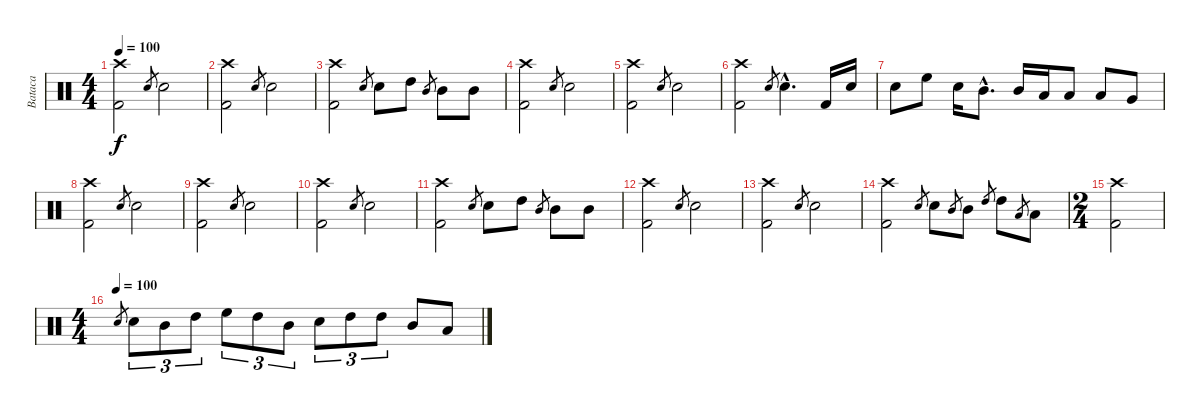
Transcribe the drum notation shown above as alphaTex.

\track ("Bataca" "Bataca") {instrument percussion}
\staff {score}
\articulation defaults
\ts (4 4)
\tempo 100
\clef neutral
\ks c
("Crash high (hit)" "Kick (hit) 2").2{dy f} "Electric Snare (hit)".8{gr} "Electric Snare (hit)".2 |
("Crash high (hit)" "Kick (hit) 2").2 "Electric Snare (hit)".8{gr} "Electric Snare (hit)".2 |
("Crash high (hit)" "Kick (hit) 2").2 "Electric Snare (hit)".8{gr} "Electric Snare (hit)".8 "High Tom (hit)".8 "Mid Tom (hit)".8{gr} "Mid Tom (hit)".8 "Mid Tom (hit)".8 |
("Crash high (hit)" "Kick (hit) 2").2 "Electric Snare (hit)".8{gr} "Electric Snare (hit)".2 |
("Crash high (hit)" "Kick (hit) 2").2 "Electric Snare (hit)".8{gr} "Electric Snare (hit)".2 |
("Crash high (hit)" "Kick (hit) 2").2 "Electric Snare (hit)".8{gr} "Electric Snare (hit)"{hac}.4{d} "Kick (hit) 2".16 "Electric Snare (hit)".16 |
"Electric Snare (hit)".8 "High Floor Tom (hit)".8 "Electric Snare (hit)".16 "Mid Tom (hit)"{hac}.8{d} "Mid Tom (hit)".16 "Low Tom (hit)".16 "Low Tom (hit)".8 "Low Tom (hit)".8 "Very Low Tom (hit)".8 |
("Crash high (hit)" "Kick (hit) 2").2 "Electric Snare (hit)".8{gr} "Electric Snare (hit)".2 |
("Crash high (hit)" "Kick (hit) 2").2 "Electric Snare (hit)".8{gr} "Electric Snare (hit)".2 |
("Crash high (hit)" "Kick (hit) 2").2 "Electric Snare (hit)".8{gr} "Electric Snare (hit)".2 |
("Crash high (hit)" "Kick (hit) 2").2 "Electric Snare (hit)".8{gr} "Electric Snare (hit)".8 "High Tom (hit)".8 "Mid Tom (hit)".8{gr} "Mid Tom (hit)".8 "Mid Tom (hit)".8 |
("Crash high (hit)" "Kick (hit) 2").2 "Electric Snare (hit)".8{gr} "Electric Snare (hit)".2 |
("Crash high (hit)" "Kick (hit) 2").2 "Electric Snare (hit)".8{gr} "Electric Snare (hit)".2 |
("Crash high (hit)" "Kick (hit) 2").2 "Electric Snare (hit)".8{gr} "Electric Snare (hit)".8 "Mid Tom (hit)".8{gr} "Mid Tom (hit)".8 "High Tom (hit)".8{gr} "High Tom (hit)".8 "Low Tom (hit)".8{gr} "Low Tom (hit)".8 |
\ts (2 4)
("Crash high (hit)" "Kick (hit) 2").2 |
\ts (4 4)
\tempo (100)
"Electric Snare (hit)".8{gr} "Electric Snare (hit)".8{tu (3 2)} "Mid Tom (hit)".8{tu (3 2)} "High Tom (hit)".8{tu (3 2)} "High Floor Tom (hit)".8{tu (3 2)} "High Tom (hit)".8{tu (3 2)} "Mid Tom (hit)".8{tu (3 2)} "Electric Snare (hit)".8{tu (3 2)} "High Tom (hit)".8{tu (3 2)} "High Tom (hit)".8{tu (3 2)} "Mid Tom (hit)".8 "Low Tom (hit)".8
